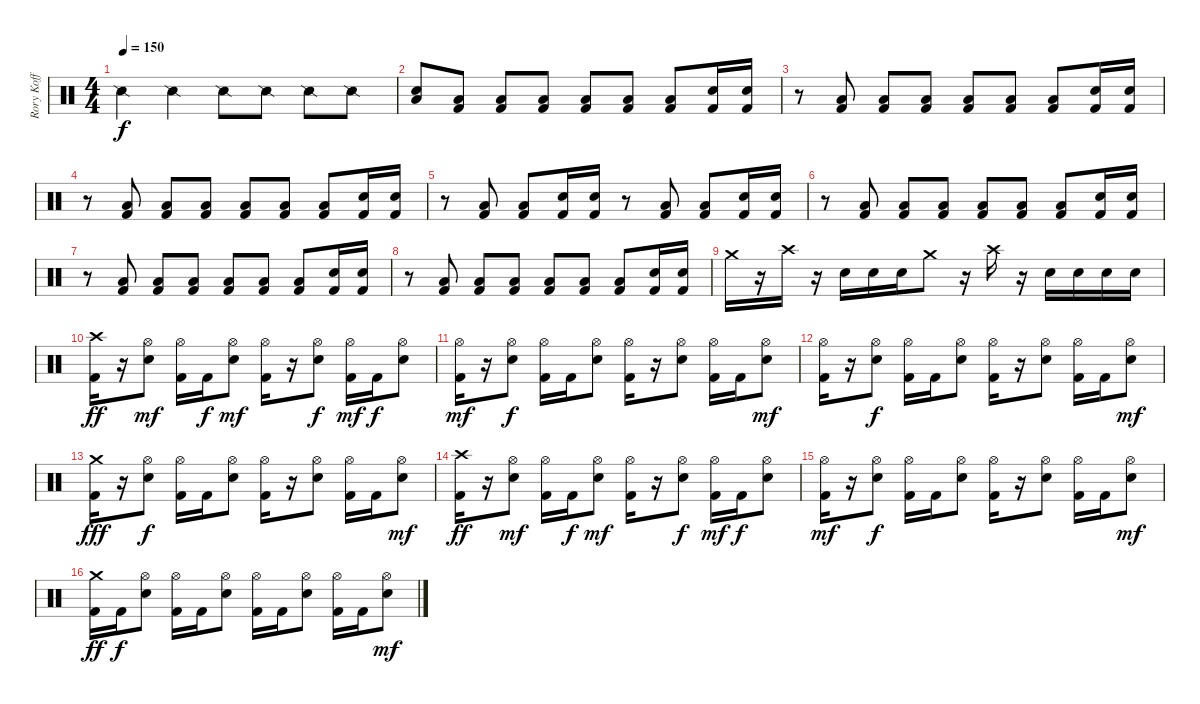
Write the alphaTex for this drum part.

\track ("Rory Koff" "Rory Koff") {instrument percussion}
\staff {score}
\articulation defaults
\ts (4 4)
\tempo 150
\clef neutral
\ks c "Snare (side stick) 2".4{dy f} "Snare (side stick) 2".4 "Snare (side stick) 2".8 "Snare (side stick) 2".8 "Snare (side stick) 2".8 "Snare (side stick) 2".8
|
("Electric Snare (hit)" "Low Tom (hit)").8 ("Kick (hit) 2" "Low Tom (hit)").8 ("Kick (hit) 2" "Low Tom (hit)").8 ("Kick (hit) 2" "Low Tom (hit)").8 ("Kick (hit) 2" "Low Tom (hit)").8 ("Kick (hit) 2" "Low Tom (hit)").8 ("Kick (hit) 2" "Low Tom (hit)").8 ("Kick (hit) 2" "Electric Snare (hit)").16 ("Kick (hit) 2" "Electric Snare (hit)").16 |
r.8 ("Kick (hit) 2" "Low Tom (hit)").8 ("Kick (hit) 2" "Low Tom (hit)").8 ("Kick (hit) 2" "Low Tom (hit)").8 ("Kick (hit) 2" "Low Tom (hit)").8 ("Kick (hit) 2" "Low Tom (hit)").8 ("Kick (hit) 2" "Low Tom (hit)").8 ("Kick (hit) 2" "Electric Snare (hit)").16 ("Kick (hit) 2" "Electric Snare (hit)").16 |
r.8 ("Kick (hit) 2" "Low Tom (hit)").8 ("Kick (hit) 2" "Low Tom (hit)").8 ("Kick (hit) 2" "Low Tom (hit)").8 ("Kick (hit) 2" "Low Tom (hit)").8 ("Kick (hit) 2" "Low Tom (hit)").8 ("Kick (hit) 2" "Low Tom (hit)").8 ("Kick (hit) 2" "Electric Snare (hit)").16 ("Kick (hit) 2" "Electric Snare (hit)").16 |
r.8 ("Kick (hit) 2" "Low Tom (hit)").8 ("Kick (hit) 2" "Low Tom (hit)").8 ("Kick (hit) 2" "Electric Snare (hit)").16 ("Kick (hit) 2" "Electric Snare (hit)").16 r.8 ("Kick (hit) 2" "Low Tom (hit)").8 ("Kick (hit) 2" "Low Tom (hit)").8 ("Kick (hit) 2" "Electric Snare (hit)").16 ("Kick (hit) 2" "Electric Snare (hit)").16 |
r.8 ("Kick (hit) 2" "Low Tom (hit)").8 ("Kick (hit) 2" "Low Tom (hit)").8 ("Kick (hit) 2" "Low Tom (hit)").8 ("Kick (hit) 2" "Low Tom (hit)").8 ("Kick (hit) 2" "Low Tom (hit)").8 ("Kick (hit) 2" "Low Tom (hit)").8 ("Kick (hit) 2" "Electric Snare (hit)").16 ("Kick (hit) 2" "Electric Snare (hit)").16 |
r.8 ("Kick (hit) 2" "Low Tom (hit)").8 ("Kick (hit) 2" "Low Tom (hit)").8 ("Kick (hit) 2" "Low Tom (hit)").8 ("Kick (hit) 2" "Low Tom (hit)").8 ("Kick (hit) 2" "Low Tom (hit)").8 ("Kick (hit) 2" "Low Tom (hit)").8 ("Kick (hit) 2" "Electric Snare (hit)").16 ("Kick (hit) 2" "Electric Snare (hit)").16 |
r.8 ("Kick (hit) 2" "Low Tom (hit)").8 ("Kick (hit) 2" "Low Tom (hit)").8 ("Kick (hit) 2" "Low Tom (hit)").8 ("Kick (hit) 2" "Low Tom (hit)").8 ("Kick (hit) 2" "Low Tom (hit)").8 ("Kick (hit) 2" "Low Tom (hit)").8 ("Kick (hit) 2" "Electric Snare (hit)").16 ("Kick (hit) 2" "Electric Snare (hit)").16 |
"Crash medium (hit)".16 r.16 "Crash high (hit)".16 r.16 "Electric Snare (hit)".16 "Electric Snare (hit)".16 "Electric Snare (hit)".16 "Crash medium (hit)".8 r.16 "Crash high (hit)".16 r.16 "Electric Snare (hit)".16 "Electric Snare (hit)".16 "Electric Snare (hit)".16 "Electric Snare (hit)".16 |
("Crash high (hit)" "Kick (hit) 2").16{dy ff} r.16 ("Hi-Hat (open)" "Electric Snare (hit)").8{dy mf} ("Hi-Hat (open)" "Kick (hit) 2").16 "Kick (hit) 2".16{dy f} ("Hi-Hat (open)" "Electric Snare (hit)").8{dy mf} ("Hi-Hat (open)" "Kick (hit) 2").16 r.16 ("Hi-Hat (open)" "Electric Snare (hit)").8{dy f} ("Hi-Hat (open)" "Kick (hit) 2").16{dy mf} "Kick (hit) 2".16{dy f} ("Hi-Hat (open)" "Electric Snare (hit)").8 |
("Hi-Hat (open)" "Kick (hit) 2").16{dy mf} r.16 ("Hi-Hat (open)" "Electric Snare (hit)").8{dy f} ("Hi-Hat (open)" "Kick (hit) 2").16 "Kick (hit) 2".16 ("Hi-Hat (open)" "Electric Snare (hit)").8 ("Hi-Hat (open)" "Kick (hit) 2").16 r.16 ("Hi-Hat (open)" "Electric Snare (hit)").8 ("Hi-Hat (open)" "Kick (hit) 2").16 "Kick (hit) 2".16 ("Hi-Hat (open)" "Electric Snare (hit)").8{dy mf} |
("Hi-Hat (open)" "Kick (hit) 2").16 r.16 ("Hi-Hat (open)" "Electric Snare (hit)").8{dy f} ("Hi-Hat (open)" "Kick (hit) 2").16 "Kick (hit) 2".16 ("Hi-Hat (open)" "Electric Snare (hit)").8 ("Hi-Hat (open)" "Kick (hit) 2").16 r.16 ("Hi-Hat (open)" "Electric Snare (hit)").8 ("Hi-Hat (open)" "Kick (hit) 2").16 "Kick (hit) 2".16 ("Hi-Hat (open)" "Electric Snare (hit)").8{dy mf} |
("Crash medium (hit)" "Kick (hit) 2").16{dy fff} r.16 ("Hi-Hat (open)" "Electric Snare (hit)").8{dy f} ("Hi-Hat (open)" "Kick (hit) 2").16 "Kick (hit) 2".16 ("Hi-Hat (open)" "Electric Snare (hit)").8 ("Hi-Hat (open)" "Kick (hit) 2").16 r.16 ("Hi-Hat (open)" "Electric Snare (hit)").8 ("Hi-Hat (open)" "Kick (hit) 2").16 "Kick (hit) 2".16 ("Hi-Hat (open)" "Electric Snare (hit)").8{dy mf} |
("Crash high (hit)" "Kick (hit) 2").16{dy ff} r.16 ("Hi-Hat (open)" "Electric Snare (hit)").8{dy mf} ("Hi-Hat (open)" "Kick (hit) 2").16 "Kick (hit) 2".16{dy f} ("Hi-Hat (open)" "Electric Snare (hit)").8{dy mf} ("Hi-Hat (open)" "Kick (hit) 2").16 r.16 ("Hi-Hat (open)" "Electric Snare (hit)").8{dy f} ("Hi-Hat (open)" "Kick (hit) 2").16{dy mf} "Kick (hit) 2".16{dy f} ("Hi-Hat (open)" "Electric Snare (hit)").8 |
("Hi-Hat (open)" "Kick (hit) 2").16{dy mf} r.16 ("Hi-Hat (open)" "Electric Snare (hit)").8{dy f} ("Hi-Hat (open)" "Kick (hit) 2").16 "Kick (hit) 2".16 ("Hi-Hat (open)" "Electric Snare (hit)").8 ("Hi-Hat (open)" "Kick (hit) 2").16 r.16 ("Hi-Hat (open)" "Electric Snare (hit)").8 ("Hi-Hat (open)" "Kick (hit) 2").16 "Kick (hit) 2".16 ("Hi-Hat (open)" "Electric Snare (hit)").8{dy mf} |
("Crash medium (hit)" "Kick (hit) 2").16{dy ff} "Kick (hit) 2".16{dy f} ("Hi-Hat (open)" "Electric Snare (hit)").8 ("Hi-Hat (open)" "Kick (hit) 2").16 "Kick (hit) 2".16 ("Hi-Hat (open)" "Electric Snare (hit)").8 ("Hi-Hat (open)" "Kick (hit) 2").16 "Kick (hit) 2".16 ("Hi-Hat (open)" "Electric Snare (hit)").8 ("Hi-Hat (open)" "Kick (hit) 2").16 "Kick (hit) 2".16 ("Hi-Hat (open)" "Electric Snare (hit)").8{dy mf}
